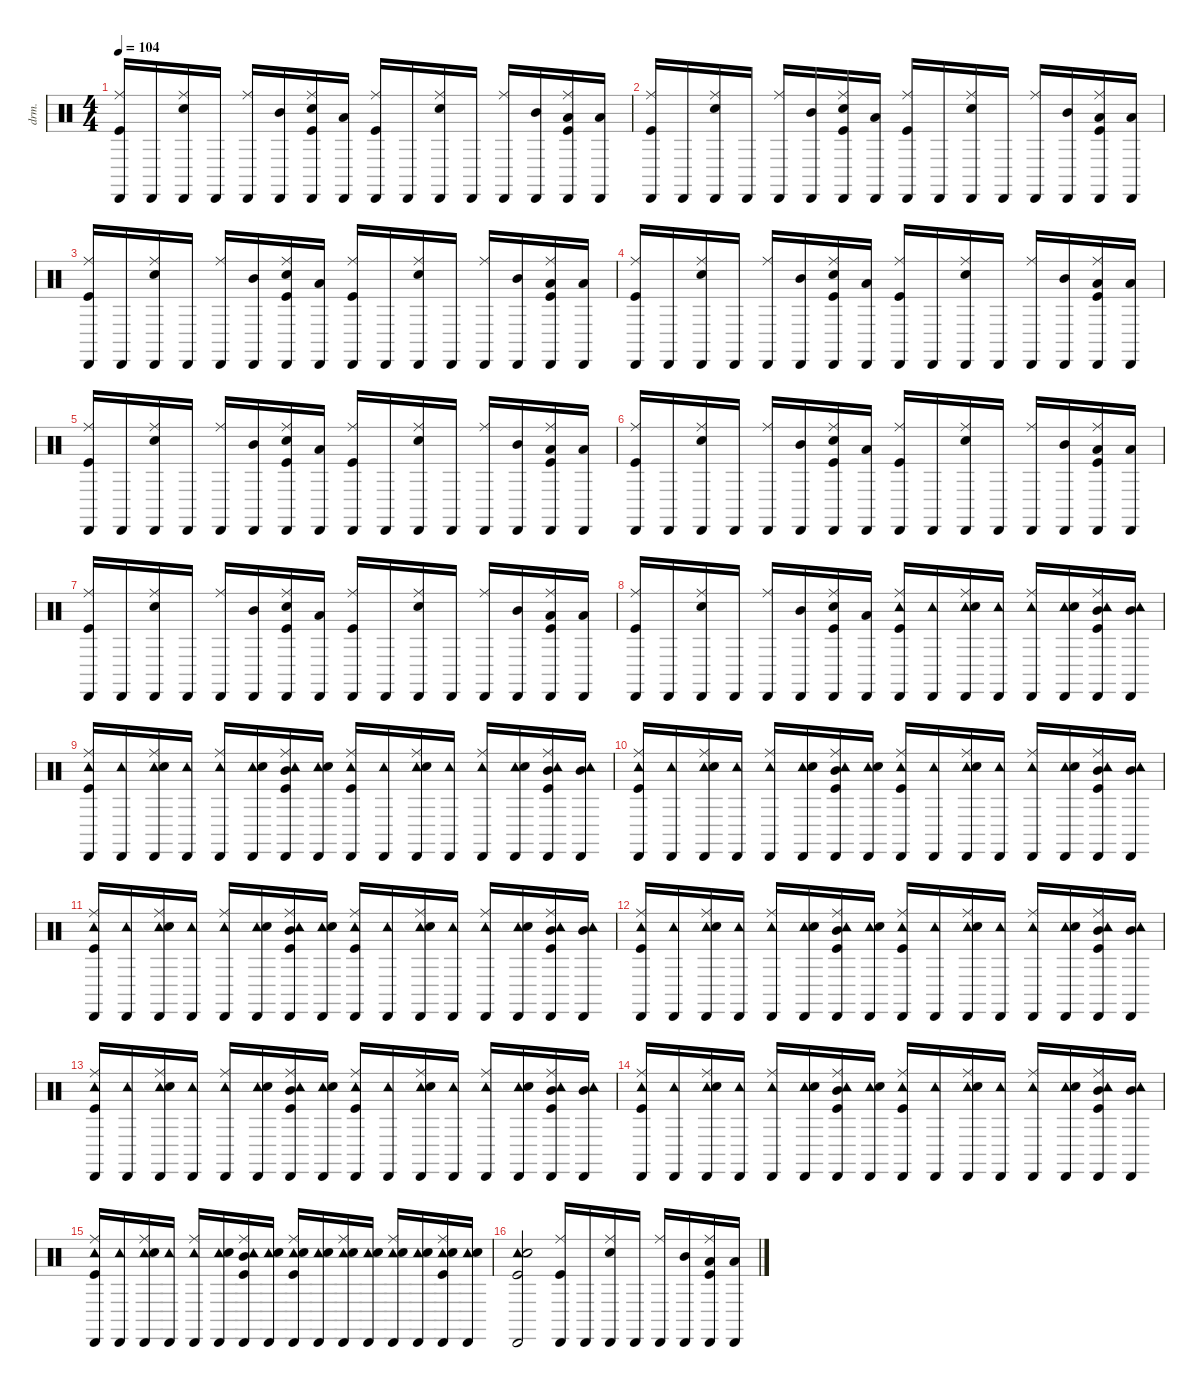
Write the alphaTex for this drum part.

\defaultSystemsLayout 4
\hideDynamics
\bracketExtendMode nobrackets
\otherSystemsTrackNameOrientation horizontal
\track ("Drums" "drm.") {instrument percussion}
\staff {score}
\articulation defaults
\ts (4 4)
\tempo 104
\clef neutral
\ks c
("Cabasa (hit)" "Ride (middle)" "Kick (hit)").16{dy f beam Up} "Cabasa (hit)".16{beam Up} ("Cabasa (hit)" "Ride (middle)" "Snare (hit) 2").16{beam Up} "Cabasa (hit)".16{beam Up} ("Cabasa (hit)" "Ride (middle)").16{beam Up} ("Cabasa (hit)" "Mid Tom (hit)").16{beam Up} ("Cabasa (hit)" "Ride (middle)" "Snare (hit) 2" "Kick (hit)").16{beam Up} ("Cabasa (hit)" "Low Tom (hit)").16{beam Up} ("Cabasa (hit)" "Ride (middle)" "Kick (hit)").16{beam Up} "Cabasa (hit)".16{beam Up} ("Cabasa (hit)" "Ride (middle)" "Snare (hit) 2").16{beam Up} "Cabasa (hit)".16{beam Up} ("Cabasa (hit)" "Ride (middle)").16{beam Up} ("Cabasa (hit)" "Mid Tom (hit)").16{beam Up} ("Cabasa (hit)" "Ride (middle)" "Low Tom (hit)" "Kick (hit)").16{beam Up} ("Cabasa (hit)" "Low Tom (hit)").16{beam Up} |
("Cabasa (hit)" "Ride (middle)" "Kick (hit)").16{beam Up} "Cabasa (hit)".16{beam Up} ("Cabasa (hit)" "Ride (middle)" "Snare (hit) 2").16{beam Up} "Cabasa (hit)".16{beam Up} ("Cabasa (hit)" "Ride (middle)").16{beam Up} ("Cabasa (hit)" "Mid Tom (hit)").16{beam Up} ("Cabasa (hit)" "Ride (middle)" "Snare (hit) 2" "Kick (hit)").16{beam Up} ("Cabasa (hit)" "Low Tom (hit)").16{beam Up} ("Cabasa (hit)" "Ride (middle)" "Kick (hit)").16{beam Up} "Cabasa (hit)".16{beam Up} ("Cabasa (hit)" "Ride (middle)" "Snare (hit) 2").16{beam Up} "Cabasa (hit)".16{beam Up} ("Cabasa (hit)" "Ride (middle)").16{beam Up} ("Cabasa (hit)" "Mid Tom (hit)").16{beam Up} ("Cabasa (hit)" "Ride (middle)" "Low Tom (hit)" "Kick (hit)").16{beam Up} ("Cabasa (hit)" "Low Tom (hit)").16{beam Up} |
("Cabasa (hit)" "Ride (middle)" "Kick (hit)").16{beam Up} "Cabasa (hit)".16{beam Up} ("Cabasa (hit)" "Ride (middle)" "Snare (hit) 2").16{beam Up} "Cabasa (hit)".16{beam Up} ("Cabasa (hit)" "Ride (middle)").16{beam Up} ("Cabasa (hit)" "Mid Tom (hit)").16{beam Up} ("Cabasa (hit)" "Ride (middle)" "Snare (hit) 2" "Kick (hit)").16{beam Up} ("Cabasa (hit)" "Low Tom (hit)").16{beam Up} ("Cabasa (hit)" "Ride (middle)" "Kick (hit)").16{beam Up} "Cabasa (hit)".16{beam Up} ("Cabasa (hit)" "Ride (middle)" "Snare (hit) 2").16{beam Up} "Cabasa (hit)".16{beam Up} ("Cabasa (hit)" "Ride (middle)").16{beam Up} ("Cabasa (hit)" "Mid Tom (hit)").16{beam Up} ("Cabasa (hit)" "Ride (middle)" "Low Tom (hit)" "Kick (hit)").16{beam Up} ("Cabasa (hit)" "Low Tom (hit)").16{beam Up} |
("Cabasa (hit)" "Ride (middle)" "Kick (hit)").16{beam Up} "Cabasa (hit)".16{beam Up} ("Cabasa (hit)" "Ride (middle)" "Snare (hit) 2").16{beam Up} "Cabasa (hit)".16{beam Up} ("Cabasa (hit)" "Ride (middle)").16{beam Up} ("Cabasa (hit)" "Mid Tom (hit)").16{beam Up} ("Cabasa (hit)" "Ride (middle)" "Snare (hit) 2" "Kick (hit)").16{beam Up} ("Cabasa (hit)" "Low Tom (hit)").16{beam Up} ("Cabasa (hit)" "Ride (middle)" "Kick (hit)").16{beam Up} "Cabasa (hit)".16{beam Up} ("Cabasa (hit)" "Ride (middle)" "Snare (hit) 2").16{beam Up} "Cabasa (hit)".16{beam Up} ("Cabasa (hit)" "Ride (middle)").16{beam Up} ("Cabasa (hit)" "Mid Tom (hit)").16{beam Up} ("Cabasa (hit)" "Ride (middle)" "Low Tom (hit)" "Kick (hit)").16{beam Up} ("Cabasa (hit)" "Low Tom (hit)").16{beam Up} |
("Cabasa (hit)" "Ride (middle)" "Kick (hit)").16{beam Up} "Cabasa (hit)".16{beam Up} ("Cabasa (hit)" "Ride (middle)" "Snare (hit) 2").16{beam Up} "Cabasa (hit)".16{beam Up} ("Cabasa (hit)" "Ride (middle)").16{beam Up} ("Cabasa (hit)" "Mid Tom (hit)").16{beam Up} ("Cabasa (hit)" "Ride (middle)" "Snare (hit) 2" "Kick (hit)").16{beam Up} ("Cabasa (hit)" "Low Tom (hit)").16{beam Up} ("Cabasa (hit)" "Ride (middle)" "Kick (hit)").16{beam Up} "Cabasa (hit)".16{beam Up} ("Cabasa (hit)" "Ride (middle)" "Snare (hit) 2").16{beam Up} "Cabasa (hit)".16{beam Up} ("Cabasa (hit)" "Ride (middle)").16{beam Up} ("Cabasa (hit)" "Mid Tom (hit)").16{beam Up} ("Cabasa (hit)" "Ride (middle)" "Low Tom (hit)" "Kick (hit)").16{beam Up} ("Cabasa (hit)" "Low Tom (hit)").16{beam Up} |
("Cabasa (hit)" "Ride (middle)" "Kick (hit)").16{beam Up} "Cabasa (hit)".16{beam Up} ("Cabasa (hit)" "Ride (middle)" "Snare (hit) 2").16{beam Up} "Cabasa (hit)".16{beam Up} ("Cabasa (hit)" "Ride (middle)").16{beam Up} ("Cabasa (hit)" "Mid Tom (hit)").16{beam Up} ("Cabasa (hit)" "Ride (middle)" "Snare (hit) 2" "Kick (hit)").16{beam Up} ("Cabasa (hit)" "Low Tom (hit)").16{beam Up} ("Cabasa (hit)" "Ride (middle)" "Kick (hit)").16{beam Up} "Cabasa (hit)".16{beam Up} ("Cabasa (hit)" "Ride (middle)" "Snare (hit) 2").16{beam Up} "Cabasa (hit)".16{beam Up} ("Cabasa (hit)" "Ride (middle)").16{beam Up} ("Cabasa (hit)" "Mid Tom (hit)").16{beam Up} ("Cabasa (hit)" "Ride (middle)" "Low Tom (hit)" "Kick (hit)").16{beam Up} ("Cabasa (hit)" "Low Tom (hit)").16{beam Up} |
("Cabasa (hit)" "Ride (middle)" "Kick (hit)").16{beam Up} "Cabasa (hit)".16{beam Up} ("Cabasa (hit)" "Ride (middle)" "Snare (hit) 2").16{beam Up} "Cabasa (hit)".16{beam Up} ("Cabasa (hit)" "Ride (middle)").16{beam Up} ("Cabasa (hit)" "Mid Tom (hit)").16{beam Up} ("Cabasa (hit)" "Ride (middle)" "Snare (hit) 2" "Kick (hit)").16{beam Up} ("Cabasa (hit)" "Low Tom (hit)").16{beam Up} ("Cabasa (hit)" "Ride (middle)" "Kick (hit)").16{beam Up} "Cabasa (hit)".16{beam Up} ("Cabasa (hit)" "Ride (middle)" "Snare (hit) 2").16{beam Up} "Cabasa (hit)".16{beam Up} ("Cabasa (hit)" "Ride (middle)").16{beam Up} ("Cabasa (hit)" "Mid Tom (hit)").16{beam Up} ("Cabasa (hit)" "Ride (middle)" "Low Tom (hit)" "Kick (hit)").16{beam Up} ("Cabasa (hit)" "Low Tom (hit)").16{beam Up} |
("Cabasa (hit)" "Ride (middle)" "Kick (hit)").16{beam Up} "Cabasa (hit)".16{beam Up} ("Cabasa (hit)" "Ride (middle)" "Snare (hit) 2").16{beam Up} "Cabasa (hit)".16{beam Up} ("Cabasa (hit)" "Ride (middle)").16{beam Up} ("Cabasa (hit)" "Mid Tom (hit)").16{beam Up} ("Cabasa (hit)" "Ride (middle)" "Snare (hit) 2" "Kick (hit)").16{beam Up} ("Cabasa (hit)" "Low Tom (hit)").16{beam Up} ("Cabasa (hit)" "Ride (middle)" "Tambourine (hit)" "Kick (hit)").16{beam Up} ("Cabasa (hit)" "Tambourine (hit)").16{beam Up} ("Cabasa (hit)" "Ride (middle)" "Tambourine (hit)" "Snare (hit) 2").16{beam Up} ("Cabasa (hit)" "Tambourine (hit)").16{beam Up} ("Cabasa (hit)" "Ride (middle)" "Tambourine (hit)").16{beam Up} ("Cabasa (hit)" "Tambourine (hit)" "Snare (hit) 2").16{beam Up} ("Cabasa (hit)" "Ride (middle)" "Tambourine (hit)" "Mid Tom (hit)" "Kick (hit)").16{beam Up} ("Cabasa (hit)" "Tambourine (hit)" "Mid Tom (hit)").16{beam Up} |
("Cabasa (hit)" "Ride (middle)" "Tambourine (hit)" "Kick (hit)").16{beam Up} ("Cabasa (hit)" "Tambourine (hit)").16{beam Up} ("Cabasa (hit)" "Ride (middle)" "Tambourine (hit)" "Snare (hit) 2").16{beam Up} ("Cabasa (hit)" "Tambourine (hit)").16{beam Up} ("Cabasa (hit)" "Ride (middle)" "Tambourine (hit)").16{beam Up} ("Cabasa (hit)" "Tambourine (hit)" "Snare (hit) 2").16{beam Up} ("Cabasa (hit)" "Ride (middle)" "Tambourine (hit)" "Mid Tom (hit)" "Kick (hit)").16{beam Up} ("Cabasa (hit)" "Tambourine (hit)" "Snare (hit) 2").16{beam Up} ("Cabasa (hit)" "Ride (middle)" "Tambourine (hit)" "Kick (hit)").16{beam Up} ("Cabasa (hit)" "Tambourine (hit)").16{beam Up} ("Cabasa (hit)" "Ride (middle)" "Tambourine (hit)" "Snare (hit) 2").16{beam Up} ("Cabasa (hit)" "Tambourine (hit)").16{beam Up} ("Cabasa (hit)" "Ride (middle)" "Tambourine (hit)").16{beam Up} ("Cabasa (hit)" "Tambourine (hit)" "Snare (hit) 2").16{beam Up} ("Cabasa (hit)" "Ride (middle)" "Tambourine (hit)" "Mid Tom (hit)" "Kick (hit)").16{beam Up} ("Cabasa (hit)" "Tambourine (hit)" "Mid Tom (hit)").16{beam Up} |
("Cabasa (hit)" "Ride (middle)" "Tambourine (hit)" "Kick (hit)").16{beam Up} ("Cabasa (hit)" "Tambourine (hit)").16{beam Up} ("Cabasa (hit)" "Ride (middle)" "Tambourine (hit)" "Snare (hit) 2").16{beam Up} ("Cabasa (hit)" "Tambourine (hit)").16{beam Up} ("Cabasa (hit)" "Ride (middle)" "Tambourine (hit)").16{beam Up} ("Cabasa (hit)" "Tambourine (hit)" "Snare (hit) 2").16{beam Up} ("Cabasa (hit)" "Ride (middle)" "Tambourine (hit)" "Mid Tom (hit)" "Kick (hit)").16{beam Up} ("Cabasa (hit)" "Tambourine (hit)" "Snare (hit) 2").16{beam Up} ("Cabasa (hit)" "Ride (middle)" "Tambourine (hit)" "Kick (hit)").16{beam Up} ("Cabasa (hit)" "Tambourine (hit)").16{beam Up} ("Cabasa (hit)" "Ride (middle)" "Tambourine (hit)" "Snare (hit) 2").16{beam Up} ("Cabasa (hit)" "Tambourine (hit)").16{beam Up} ("Cabasa (hit)" "Ride (middle)" "Tambourine (hit)").16{beam Up} ("Cabasa (hit)" "Tambourine (hit)" "Snare (hit) 2").16{beam Up} ("Cabasa (hit)" "Ride (middle)" "Tambourine (hit)" "Mid Tom (hit)" "Kick (hit)").16{beam Up} ("Cabasa (hit)" "Tambourine (hit)" "Mid Tom (hit)").16{beam Up} |
("Cabasa (hit)" "Ride (middle)" "Tambourine (hit)" "Kick (hit)").16{beam Up} ("Cabasa (hit)" "Tambourine (hit)").16{beam Up} ("Cabasa (hit)" "Ride (middle)" "Tambourine (hit)" "Snare (hit) 2").16{beam Up} ("Cabasa (hit)" "Tambourine (hit)").16{beam Up} ("Cabasa (hit)" "Ride (middle)" "Tambourine (hit)").16{beam Up} ("Cabasa (hit)" "Tambourine (hit)" "Snare (hit) 2").16{beam Up} ("Cabasa (hit)" "Ride (middle)" "Tambourine (hit)" "Mid Tom (hit)" "Kick (hit)").16{beam Up} ("Cabasa (hit)" "Tambourine (hit)" "Snare (hit) 2").16{beam Up} ("Cabasa (hit)" "Ride (middle)" "Tambourine (hit)" "Kick (hit)").16{beam Up} ("Cabasa (hit)" "Tambourine (hit)").16{beam Up} ("Cabasa (hit)" "Ride (middle)" "Tambourine (hit)" "Snare (hit) 2").16{beam Up} ("Cabasa (hit)" "Tambourine (hit)").16{beam Up} ("Cabasa (hit)" "Ride (middle)" "Tambourine (hit)").16{beam Up} ("Cabasa (hit)" "Tambourine (hit)" "Snare (hit) 2").16{beam Up} ("Cabasa (hit)" "Ride (middle)" "Tambourine (hit)" "Mid Tom (hit)" "Kick (hit)").16{beam Up} ("Cabasa (hit)" "Tambourine (hit)" "Mid Tom (hit)").16{beam Up} |
("Cabasa (hit)" "Ride (middle)" "Tambourine (hit)" "Kick (hit)").16{beam Up} ("Cabasa (hit)" "Tambourine (hit)").16{beam Up} ("Cabasa (hit)" "Ride (middle)" "Tambourine (hit)" "Snare (hit) 2").16{beam Up} ("Cabasa (hit)" "Tambourine (hit)").16{beam Up} ("Cabasa (hit)" "Ride (middle)" "Tambourine (hit)").16{beam Up} ("Cabasa (hit)" "Tambourine (hit)" "Snare (hit) 2").16{beam Up} ("Cabasa (hit)" "Ride (middle)" "Tambourine (hit)" "Mid Tom (hit)" "Kick (hit)").16{beam Up} ("Cabasa (hit)" "Tambourine (hit)" "Snare (hit) 2").16{beam Up} ("Cabasa (hit)" "Ride (middle)" "Tambourine (hit)" "Kick (hit)").16{beam Up} ("Cabasa (hit)" "Tambourine (hit)").16{beam Up} ("Cabasa (hit)" "Ride (middle)" "Tambourine (hit)" "Snare (hit) 2").16{beam Up} ("Cabasa (hit)" "Tambourine (hit)").16{beam Up} ("Cabasa (hit)" "Ride (middle)" "Tambourine (hit)").16{beam Up} ("Cabasa (hit)" "Tambourine (hit)" "Snare (hit) 2").16{beam Up} ("Cabasa (hit)" "Ride (middle)" "Tambourine (hit)" "Mid Tom (hit)" "Kick (hit)").16{beam Up} ("Cabasa (hit)" "Tambourine (hit)" "Mid Tom (hit)").16{beam Up} |
("Cabasa (hit)" "Ride (middle)" "Tambourine (hit)" "Kick (hit)").16{beam Up} ("Cabasa (hit)" "Tambourine (hit)").16{beam Up} ("Cabasa (hit)" "Ride (middle)" "Tambourine (hit)" "Snare (hit) 2").16{beam Up} ("Cabasa (hit)" "Tambourine (hit)").16{beam Up} ("Cabasa (hit)" "Ride (middle)" "Tambourine (hit)").16{beam Up} ("Cabasa (hit)" "Tambourine (hit)" "Snare (hit) 2").16{beam Up} ("Cabasa (hit)" "Ride (middle)" "Tambourine (hit)" "Mid Tom (hit)" "Kick (hit)").16{beam Up} ("Cabasa (hit)" "Tambourine (hit)" "Snare (hit) 2").16{beam Up} ("Cabasa (hit)" "Ride (middle)" "Tambourine (hit)" "Kick (hit)").16{beam Up} ("Cabasa (hit)" "Tambourine (hit)").16{beam Up} ("Cabasa (hit)" "Ride (middle)" "Tambourine (hit)" "Snare (hit) 2").16{beam Up} ("Cabasa (hit)" "Tambourine (hit)").16{beam Up} ("Cabasa (hit)" "Ride (middle)" "Tambourine (hit)").16{beam Up} ("Cabasa (hit)" "Tambourine (hit)" "Snare (hit) 2").16{beam Up} ("Cabasa (hit)" "Ride (middle)" "Tambourine (hit)" "Mid Tom (hit)" "Kick (hit)").16{beam Up} ("Cabasa (hit)" "Tambourine (hit)" "Mid Tom (hit)").16{beam Up} |
("Cabasa (hit)" "Ride (middle)" "Tambourine (hit)" "Kick (hit)").16{beam Up} ("Cabasa (hit)" "Tambourine (hit)").16{beam Up} ("Cabasa (hit)" "Ride (middle)" "Tambourine (hit)" "Snare (hit) 2").16{beam Up} ("Cabasa (hit)" "Tambourine (hit)").16{beam Up} ("Cabasa (hit)" "Ride (middle)" "Tambourine (hit)").16{beam Up} ("Cabasa (hit)" "Tambourine (hit)" "Snare (hit) 2").16{beam Up} ("Cabasa (hit)" "Ride (middle)" "Tambourine (hit)" "Mid Tom (hit)" "Kick (hit)").16{beam Up} ("Cabasa (hit)" "Tambourine (hit)" "Snare (hit) 2").16{beam Up} ("Cabasa (hit)" "Ride (middle)" "Tambourine (hit)" "Kick (hit)").16{beam Up} ("Cabasa (hit)" "Tambourine (hit)").16{beam Up} ("Cabasa (hit)" "Ride (middle)" "Tambourine (hit)" "Snare (hit) 2").16{beam Up} ("Cabasa (hit)" "Tambourine (hit)").16{beam Up} ("Cabasa (hit)" "Ride (middle)" "Tambourine (hit)").16{beam Up} ("Cabasa (hit)" "Tambourine (hit)" "Snare (hit) 2").16{beam Up} ("Cabasa (hit)" "Ride (middle)" "Tambourine (hit)" "Mid Tom (hit)" "Kick (hit)").16{beam Up} ("Cabasa (hit)" "Tambourine (hit)" "Mid Tom (hit)").16{beam Up} |
("Cabasa (hit)" "Ride (middle)" "Tambourine (hit)" "Kick (hit)").16{beam Up} ("Cabasa (hit)" "Tambourine (hit)").16{beam Up} ("Cabasa (hit)" "Ride (middle)" "Tambourine (hit)" "Snare (hit) 2").16{beam Up} ("Cabasa (hit)" "Tambourine (hit)").16{beam Up} ("Cabasa (hit)" "Ride (middle)" "Tambourine (hit)").16{beam Up} ("Cabasa (hit)" "Tambourine (hit)" "Snare (hit) 2").16{beam Up} ("Cabasa (hit)" "Ride (middle)" "Tambourine (hit)" "Mid Tom (hit)" "Kick (hit)").16{beam Up} ("Cabasa (hit)" "Tambourine (hit)" "Snare (hit) 2").16{beam Up} ("Cabasa (hit)" "Ride (middle)" "Tambourine (hit)" "Snare (hit) 2" "Kick (hit)").16{beam Up} ("Cabasa (hit)" "Tambourine (hit)" "Snare (hit) 2").16{beam Up} ("Cabasa (hit)" "Ride (middle)" "Tambourine (hit)" "Snare (hit) 2").16{beam Up} ("Cabasa (hit)" "Tambourine (hit)" "Snare (hit) 2").16{beam Up} ("Cabasa (hit)" "Ride (middle)" "Tambourine (hit)" "Snare (hit) 2").16{beam Up} ("Cabasa (hit)" "Tambourine (hit)" "Snare (hit) 2").16{beam Up} ("Cabasa (hit)" "Ride (middle)" "Tambourine (hit)" "Snare (hit) 2" "Kick (hit)").16{beam Up} ("Cabasa (hit)" "Tambourine (hit)" "Snare (hit) 2").16{beam Up} |
("Cabasa (hit)" "Tambourine (hit)" "Snare (hit) 2" "Kick (hit)").2{beam Up} ("Cabasa (hit)" "Ride (middle)" "Kick (hit)").16{beam Up} "Cabasa (hit)".16{beam Up} ("Cabasa (hit)" "Ride (middle)" "Snare (hit) 2").16{beam Up} "Cabasa (hit)".16{beam Up} ("Cabasa (hit)" "Ride (middle)").16{beam Up} ("Cabasa (hit)" "Mid Tom (hit)").16{beam Up} ("Cabasa (hit)" "Ride (middle)" "Low Tom (hit)" "Kick (hit)").16{beam Up} ("Cabasa (hit)" "Low Tom (hit)").16{beam Up}
